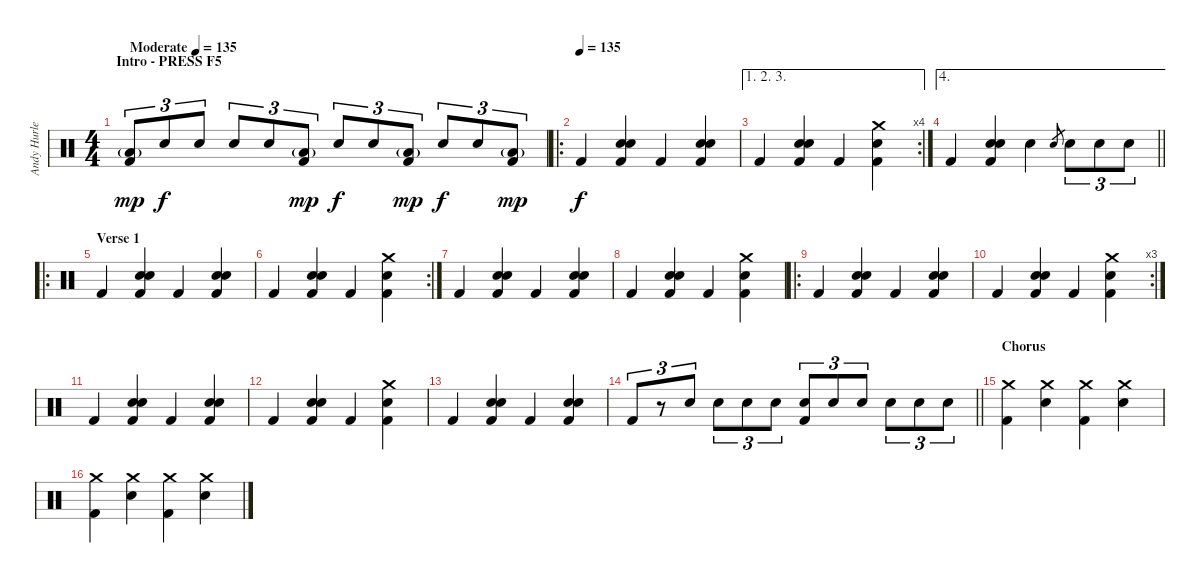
\track ("Andy Hurley" "Andy Hurle") {instrument percussion}
\staff {score}
\articulation defaults
\ts (4 4)
\section ("" "Intro - PRESS F5 ")
\tempo (135 "Moderate")
\clef neutral
\ks c
("Low Floor Tom (hit)"{g} "Kick (hit) 2").8{tu (3 2) dy mp} "Electric Snare (hit)".8{tu (3 2) dy f} "Electric Snare (hit)".8{tu (3 2)} "Electric Snare (hit)".8{tu (3 2)} "Electric Snare (hit)".8{tu (3 2)} ("Low Floor Tom (hit)"{g} "Kick (hit) 2").8{tu (3 2) dy mp} "Electric Snare (hit)".8{tu (3 2) dy f} "Electric Snare (hit)".8{tu (3 2)} ("Low Floor Tom (hit)"{g} "Kick (hit) 2").8{tu (3 2) dy mp} "Electric Snare (hit)".8{tu (3 2) dy f} "Electric Snare (hit)".8{tu (3 2)} ("Low Floor Tom (hit)"{g} "Kick (hit) 2").8{tu (3 2) dy mp} |
\ro
\tempo (135)
"Kick (hit) 2".4{dy f volume 13} ("Electric Snare (hit)" "Electric Snare (hit)" "Kick (hit) 2").4 "Kick (hit) 2".4 ("Electric Snare (hit)" "Electric Snare (hit)" "Kick (hit) 2").4 |
\ae (1 2 3)
\rc 4 "Kick (hit) 2".4
("Electric Snare (hit)" "Electric Snare (hit)" "Kick (hit) 2").4 "Kick (hit) 2".4 ("Crash medium (hit)" "Electric Snare (hit)" "Kick (hit) 2").4 |
\ae 4
\barLineRight lightlight "Kick (hit) 2".4
("Electric Snare (hit)" "Electric Snare (hit)" "Kick (hit) 2").4 "Electric Snare (hit)".4 "Electric Snare (hit)".8{gr} "Electric Snare (hit)".8{tu (3 2)} "Electric Snare (hit)".8{tu (3 2)} "Electric Snare (hit)".8{tu (3 2)} |
\ro
\section ("" "Verse 1")
"Kick (hit) 2".4 ("Electric Snare (hit)" "Electric Snare (hit)" "Kick (hit) 2").4 "Kick (hit) 2".4 ("Electric Snare (hit)" "Electric Snare (hit)" "Kick (hit) 2").4 |
\rc 2 "Kick (hit) 2".4
("Electric Snare (hit)" "Electric Snare (hit)" "Kick (hit) 2").4 "Kick (hit) 2".4 ("Crash medium (hit)" "Electric Snare (hit)" "Kick (hit) 2").4 |
"Kick (hit) 2".4 ("Electric Snare (hit)" "Electric Snare (hit)" "Kick (hit) 2").4 "Kick (hit) 2".4 ("Electric Snare (hit)" "Electric Snare (hit)" "Kick (hit) 2").4 |
"Kick (hit) 2".4 ("Electric Snare (hit)" "Electric Snare (hit)" "Kick (hit) 2").4 "Kick (hit) 2".4 ("Crash medium (hit)" "Electric Snare (hit)" "Kick (hit) 2").4 |
\ro "Kick (hit) 2".4
("Electric Snare (hit)" "Electric Snare (hit)" "Kick (hit) 2").4 "Kick (hit) 2".4 ("Electric Snare (hit)" "Electric Snare (hit)" "Kick (hit) 2").4 |
\rc 3 "Kick (hit) 2".4
("Electric Snare (hit)" "Electric Snare (hit)" "Kick (hit) 2").4 "Kick (hit) 2".4 ("Crash medium (hit)" "Electric Snare (hit)" "Kick (hit) 2").4 |
"Kick (hit) 2".4 ("Electric Snare (hit)" "Electric Snare (hit)" "Kick (hit) 2").4 "Kick (hit) 2".4 ("Electric Snare (hit)" "Electric Snare (hit)" "Kick (hit) 2").4 |
"Kick (hit) 2".4 ("Electric Snare (hit)" "Electric Snare (hit)" "Kick (hit) 2").4 "Kick (hit) 2".4 ("Crash medium (hit)" "Electric Snare (hit)" "Kick (hit) 2").4 |
"Kick (hit) 2".4 ("Electric Snare (hit)" "Electric Snare (hit)" "Kick (hit) 2").4 "Kick (hit) 2".4 ("Electric Snare (hit)" "Electric Snare (hit)" "Kick (hit) 2").4 |
\barLineRight lightlight "Kick (hit) 2".8{tu (3 2)}
r.8{tu (3 2)} "Electric Snare (hit)".8{tu (3 2)} "Electric Snare (hit)".8{tu (3 2)} "Electric Snare (hit)".8{tu (3 2)} "Electric Snare (hit)".8{tu (3 2)} ("Electric Snare (hit)" "Kick (hit) 2").8{tu (3 2)} "Electric Snare (hit)".8{tu (3 2)} "Electric Snare (hit)".8{tu (3 2)} "Electric Snare (hit)".8{tu (3 2)} "Electric Snare (hit)".8{tu (3 2)} "Electric Snare (hit)".8{tu (3 2)} |
\section ("" "Chorus")
("Crash medium (hit)" "Kick (hit) 2").4 ("Crash medium (hit)" "Electric Snare (hit)").4 ("Crash medium (hit)" "Kick (hit) 2").4 ("Crash medium (hit)" "Electric Snare (hit)").4 |
("Crash medium (hit)" "Kick (hit) 2").4 ("Crash medium (hit)" "Electric Snare (hit)").4 ("Crash medium (hit)" "Kick (hit) 2").4 ("Crash medium (hit)" "Electric Snare (hit)").4
